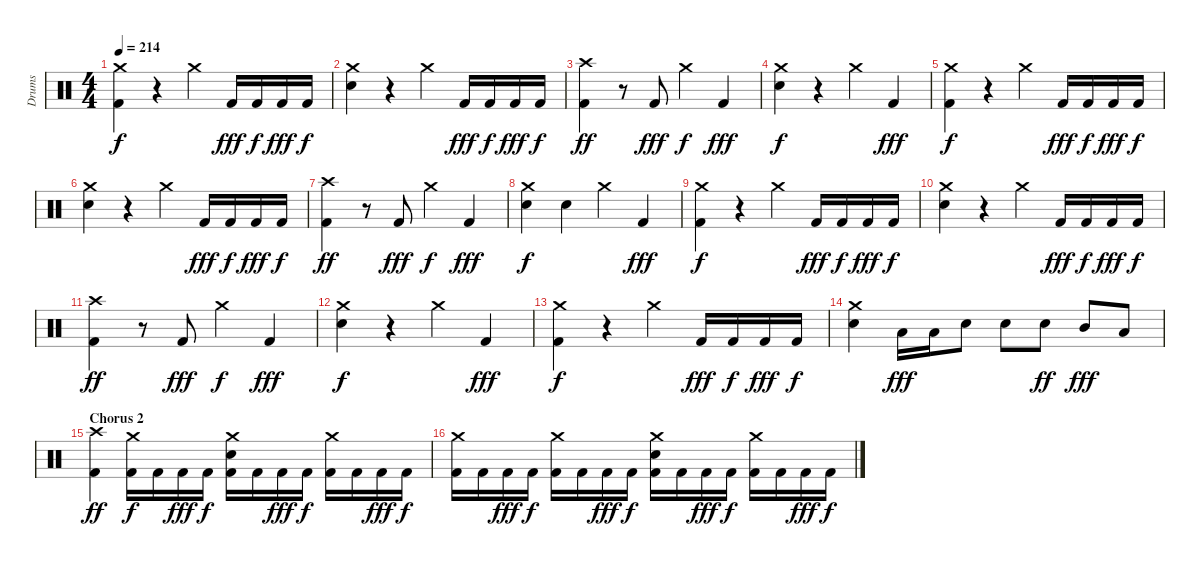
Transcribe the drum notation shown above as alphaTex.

\track ("Drums" "Drums") {instrument percussion}
\staff {score}
\articulation defaults
\ts (4 4)
\tempo 214
\clef neutral
\ks c
("Crash medium (hit)" "Kick (hit) 2").4{dy f} r.4 "Crash medium (hit)".4 "Kick (hit) 2".16{dy fff} "Kick (hit) 2".16{dy f} "Kick (hit) 2".16{dy fff} "Kick (hit) 2".16{dy f} |
("Crash medium (hit)" "Snare (hit) 2").4 r.4 "Crash medium (hit)".4 "Kick (hit) 2".16{dy fff} "Kick (hit) 2".16{dy f} "Kick (hit) 2".16{dy fff} "Kick (hit) 2".16{dy f} |
("Crash high (hit)" "Kick (hit) 2").4{dy ff} r.8 "Kick (hit) 2".8{dy fff} "Crash medium (hit)".4{dy f} "Kick (hit) 2".4{dy fff} |
("Crash medium (hit)" "Snare (hit) 2").4{dy f} r.4 "Crash medium (hit)".4 "Kick (hit) 2".4{dy fff} |
("Crash medium (hit)" "Kick (hit) 2").4{dy f} r.4 "Crash medium (hit)".4 "Kick (hit) 2".16{dy fff} "Kick (hit) 2".16{dy f} "Kick (hit) 2".16{dy fff} "Kick (hit) 2".16{dy f} |
("Crash medium (hit)" "Snare (hit) 2").4 r.4 "Crash medium (hit)".4 "Kick (hit) 2".16{dy fff} "Kick (hit) 2".16{dy f} "Kick (hit) 2".16{dy fff} "Kick (hit) 2".16{dy f} |
("Crash high (hit)" "Kick (hit) 2").4{dy ff} r.8 "Kick (hit) 2".8{dy fff} "Crash medium (hit)".4{dy f} "Kick (hit) 2".4{dy fff} |
("Crash medium (hit)" "Snare (hit) 2").4{dy f} "Snare (hit) 2".4 "Crash medium (hit)".4 "Kick (hit) 2".4{dy fff} |
("Crash medium (hit)" "Kick (hit) 2").4{dy f} r.4 "Crash medium (hit)".4 "Kick (hit) 2".16{dy fff} "Kick (hit) 2".16{dy f} "Kick (hit) 2".16{dy fff} "Kick (hit) 2".16{dy f} |
("Crash medium (hit)" "Snare (hit) 2").4 r.4 "Crash medium (hit)".4 "Kick (hit) 2".16{dy fff} "Kick (hit) 2".16{dy f} "Kick (hit) 2".16{dy fff} "Kick (hit) 2".16{dy f} |
("Crash high (hit)" "Kick (hit) 2").4{dy ff} r.8 "Kick (hit) 2".8{dy fff} "Crash medium (hit)".4{dy f} "Kick (hit) 2".4{dy fff} |
("Crash medium (hit)" "Snare (hit) 2").4{dy f} r.4 "Crash medium (hit)".4 "Kick (hit) 2".4{dy fff} |
("Crash medium (hit)" "Kick (hit) 2").4{dy f} r.4 "Crash medium (hit)".4 "Kick (hit) 2".16{dy fff} "Kick (hit) 2".16{dy f} "Kick (hit) 2".16{dy fff} "Kick (hit) 2".16{dy f} |
("Crash medium (hit)" "Snare (hit) 2").4 "Low Tom (hit)".16{dy fff} "Low Tom (hit)".16 "Snare (hit) 2".8 "Snare (hit) 2".8 "Snare (hit) 2".8{dy ff} "Mid Tom (hit)".8{dy fff} "Low Tom (hit)".8 |
\section ("" "Chorus 2")
("Crash high (hit)" "Kick (hit) 2").4{dy ff} ("Crash medium (hit)" "Kick (hit) 2").16{dy f} "Kick (hit) 2".16 "Kick (hit) 2".16{dy fff} "Kick (hit) 2".16{dy f} ("Crash medium (hit)" "Snare (hit) 2" "Kick (hit) 2").16 "Kick (hit) 2".16 "Kick (hit) 2".16{dy fff} "Kick (hit) 2".16{dy f} ("Crash medium (hit)" "Kick (hit) 2").16 "Kick (hit) 2".16 "Kick (hit) 2".16{dy fff} "Kick (hit) 2".16{dy f} |
("Crash medium (hit)" "Kick (hit) 2").16 "Kick (hit) 2".16 "Kick (hit) 2".16{dy fff} "Kick (hit) 2".16{dy f} ("Crash medium (hit)" "Kick (hit) 2").16 "Kick (hit) 2".16 "Kick (hit) 2".16{dy fff} "Kick (hit) 2".16{dy f} ("Crash medium (hit)" "Snare (hit) 2" "Kick (hit) 2").16 "Kick (hit) 2".16 "Kick (hit) 2".16{dy fff} "Kick (hit) 2".16{dy f} ("Crash medium (hit)" "Kick (hit) 2").16 "Kick (hit) 2".16 "Kick (hit) 2".16{dy fff} "Kick (hit) 2".16{dy f}
